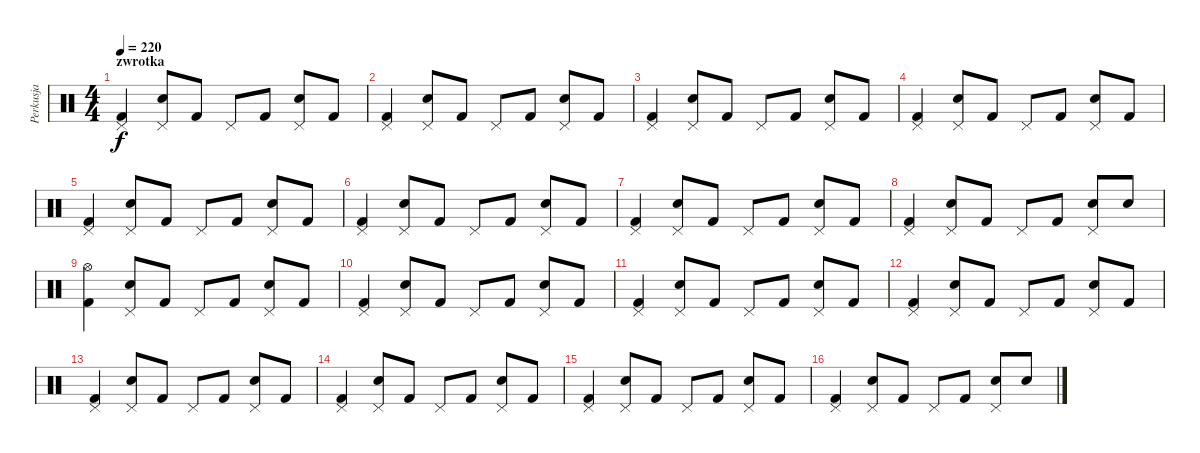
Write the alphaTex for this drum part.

\track ("Perkusja" "Perkusja") {instrument percussion}
\staff {score}
\articulation defaults
\ts (4 4)
\section ("" "zwrotka")
\tempo 220
\clef neutral
\ks c
("Pedal Hi-Hat (hit)" "Kick (hit) 2").4{dy f} ("Pedal Hi-Hat (hit)" "Snare (hit) 2").8 "Kick (hit) 2".8 "Pedal Hi-Hat (hit)".8 "Kick (hit) 2".8 ("Pedal Hi-Hat (hit)" "Snare (hit) 2").8 "Kick (hit) 2".8 |
("Pedal Hi-Hat (hit)" "Kick (hit) 2").4 ("Pedal Hi-Hat (hit)" "Snare (hit) 2").8 "Kick (hit) 2".8 "Pedal Hi-Hat (hit)".8 "Kick (hit) 2".8 ("Pedal Hi-Hat (hit)" "Snare (hit) 2").8 "Kick (hit) 2".8 |
("Pedal Hi-Hat (hit)" "Kick (hit) 2").4 ("Pedal Hi-Hat (hit)" "Snare (hit) 2").8 "Kick (hit) 2".8 "Pedal Hi-Hat (hit)".8 "Kick (hit) 2".8 ("Pedal Hi-Hat (hit)" "Snare (hit) 2").8 "Kick (hit) 2".8 |
("Pedal Hi-Hat (hit)" "Kick (hit) 2").4 ("Pedal Hi-Hat (hit)" "Snare (hit) 2").8 "Kick (hit) 2".8 "Pedal Hi-Hat (hit)".8 "Kick (hit) 2".8 ("Pedal Hi-Hat (hit)" "Snare (hit) 2").8 "Kick (hit) 2".8 |
("Pedal Hi-Hat (hit)" "Kick (hit) 2").4 ("Pedal Hi-Hat (hit)" "Snare (hit) 2").8 "Kick (hit) 2".8 "Pedal Hi-Hat (hit)".8 "Kick (hit) 2".8 ("Pedal Hi-Hat (hit)" "Snare (hit) 2").8 "Kick (hit) 2".8 |
("Pedal Hi-Hat (hit)" "Kick (hit) 2").4 ("Pedal Hi-Hat (hit)" "Snare (hit) 2").8 "Kick (hit) 2".8 "Pedal Hi-Hat (hit)".8 "Kick (hit) 2".8 ("Pedal Hi-Hat (hit)" "Snare (hit) 2").8 "Kick (hit) 2".8 |
("Pedal Hi-Hat (hit)" "Kick (hit) 2").4 ("Pedal Hi-Hat (hit)" "Snare (hit) 2").8 "Kick (hit) 2".8 "Pedal Hi-Hat (hit)".8 "Kick (hit) 2".8 ("Pedal Hi-Hat (hit)" "Snare (hit) 2").8 "Kick (hit) 2".8 |
("Pedal Hi-Hat (hit)" "Kick (hit) 2").4 ("Pedal Hi-Hat (hit)" "Snare (hit) 2").8 "Kick (hit) 2".8 "Pedal Hi-Hat (hit)".8 "Kick (hit) 2".8 ("Pedal Hi-Hat (hit)" "Snare (hit) 2").8 "Snare (hit) 2".8 |
("Hi-Hat (open)" "Kick (hit) 2").4 ("Pedal Hi-Hat (hit)" "Snare (hit) 2").8 "Kick (hit) 2".8 "Pedal Hi-Hat (hit)".8 "Kick (hit) 2".8 ("Pedal Hi-Hat (hit)" "Snare (hit) 2").8 "Kick (hit) 2".8 |
("Pedal Hi-Hat (hit)" "Kick (hit) 2").4 ("Pedal Hi-Hat (hit)" "Snare (hit) 2").8 "Kick (hit) 2".8 "Pedal Hi-Hat (hit)".8 "Kick (hit) 2".8 ("Pedal Hi-Hat (hit)" "Snare (hit) 2").8 "Kick (hit) 2".8 |
("Pedal Hi-Hat (hit)" "Kick (hit) 2").4 ("Pedal Hi-Hat (hit)" "Snare (hit) 2").8 "Kick (hit) 2".8 "Pedal Hi-Hat (hit)".8 "Kick (hit) 2".8 ("Pedal Hi-Hat (hit)" "Snare (hit) 2").8 "Kick (hit) 2".8 |
("Pedal Hi-Hat (hit)" "Kick (hit) 2").4 ("Pedal Hi-Hat (hit)" "Snare (hit) 2").8 "Kick (hit) 2".8 "Pedal Hi-Hat (hit)".8 "Kick (hit) 2".8 ("Pedal Hi-Hat (hit)" "Snare (hit) 2").8 "Kick (hit) 2".8 |
("Pedal Hi-Hat (hit)" "Kick (hit) 2").4 ("Pedal Hi-Hat (hit)" "Snare (hit) 2").8 "Kick (hit) 2".8 "Pedal Hi-Hat (hit)".8 "Kick (hit) 2".8 ("Pedal Hi-Hat (hit)" "Snare (hit) 2").8 "Kick (hit) 2".8 |
("Pedal Hi-Hat (hit)" "Kick (hit) 2").4 ("Pedal Hi-Hat (hit)" "Snare (hit) 2").8 "Kick (hit) 2".8 "Pedal Hi-Hat (hit)".8 "Kick (hit) 2".8 ("Pedal Hi-Hat (hit)" "Snare (hit) 2").8 "Kick (hit) 2".8 |
("Pedal Hi-Hat (hit)" "Kick (hit) 2").4 ("Pedal Hi-Hat (hit)" "Snare (hit) 2").8 "Kick (hit) 2".8 "Pedal Hi-Hat (hit)".8 "Kick (hit) 2".8 ("Pedal Hi-Hat (hit)" "Snare (hit) 2").8 "Kick (hit) 2".8 |
("Pedal Hi-Hat (hit)" "Kick (hit) 2").4 ("Pedal Hi-Hat (hit)" "Snare (hit) 2").8 "Kick (hit) 2".8 "Pedal Hi-Hat (hit)".8 "Kick (hit) 2".8 ("Pedal Hi-Hat (hit)" "Snare (hit) 2").8 "Snare (hit) 2".8
